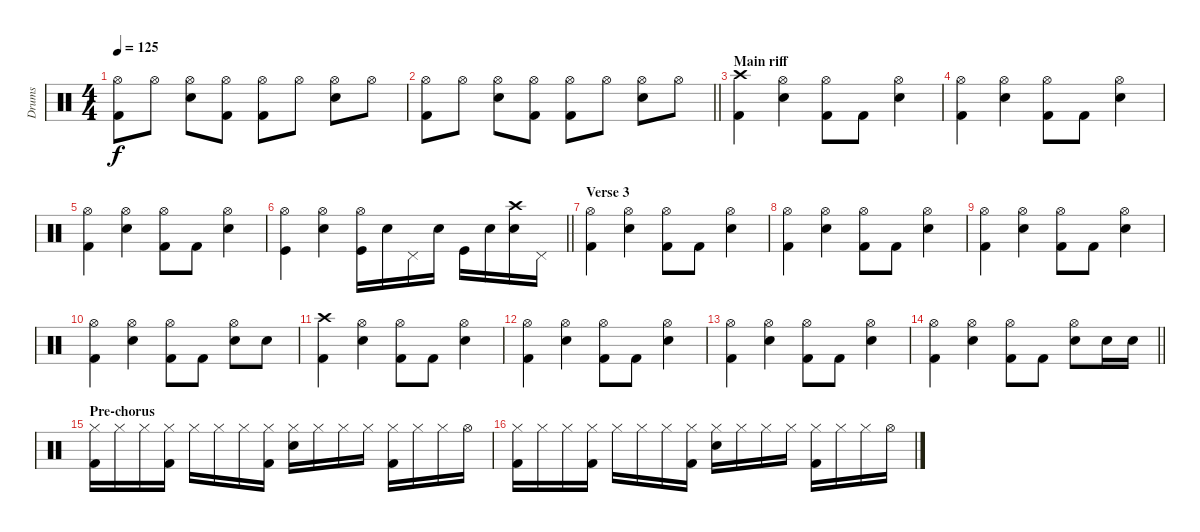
\track ("Drums" "Drums") {instrument percussion}
\staff {score}
\articulation defaults
\ts (4 4)
\tempo 125
\clef neutral
\ks c
("Hi-Hat (open)" "Kick (hit) 2").8{dy f} "Hi-Hat (open)".8 ("Hi-Hat (open)" "Electric Snare (hit)").8 ("Hi-Hat (open)" "Kick (hit) 2").8 ("Hi-Hat (open)" "Kick (hit) 2").8 "Hi-Hat (open)".8 ("Hi-Hat (open)" "Electric Snare (hit)").8 "Hi-Hat (open)".8 |
\barLineRight lightlight
("Hi-Hat (open)" "Kick (hit) 2").8 "Hi-Hat (open)".8 ("Hi-Hat (open)" "Electric Snare (hit)").8 ("Hi-Hat (open)" "Kick (hit) 2").8 ("Hi-Hat (open)" "Kick (hit) 2").8 "Hi-Hat (open)".8 ("Hi-Hat (open)" "Electric Snare (hit)").8 "Hi-Hat (open)".8 |
\section ("" "Main riff")
("Crash high (hit)" "Kick (hit) 2").4 ("Hi-Hat (open)" "Electric Snare (hit)").4 ("Hi-Hat (open)" "Kick (hit) 2").8 "Kick (hit) 2".8 ("Hi-Hat (open)" "Electric Snare (hit)").4 |
("Hi-Hat (open)" "Kick (hit) 2").4 ("Hi-Hat (open)" "Electric Snare (hit)").4 ("Hi-Hat (open)" "Kick (hit) 2").8 "Kick (hit) 2".8 ("Hi-Hat (open)" "Electric Snare (hit)").4 |
("Hi-Hat (open)" "Kick (hit) 2").4 ("Hi-Hat (open)" "Electric Snare (hit)").4 ("Hi-Hat (open)" "Kick (hit) 2").8 "Kick (hit) 2".8 ("Hi-Hat (open)" "Electric Snare (hit)").4 |
\barLineRight lightlight
("Hi-Hat (open)" "Kick (hit)").4 ("Hi-Hat (open)" "Electric Snare (hit)").4 ("Hi-Hat (open)" "Kick (hit)").16 "Electric Snare (hit)".16 "Pedal Hi-Hat (hit)".16 "Electric Snare (hit)".16 "Kick (hit)".16 "Electric Snare (hit)".16 ("Crash high (hit)" "Electric Snare (hit)").16 "Pedal Hi-Hat (hit)".16 |
\section ("" "Verse 3")
("Hi-Hat (open)" "Kick (hit) 2").4 ("Hi-Hat (open)" "Electric Snare (hit)").4 ("Hi-Hat (open)" "Kick (hit) 2").8 "Kick (hit) 2".8 ("Hi-Hat (open)" "Electric Snare (hit)").4 |
("Hi-Hat (open)" "Kick (hit) 2").4 ("Hi-Hat (open)" "Electric Snare (hit)").4 ("Hi-Hat (open)" "Kick (hit) 2").8 "Kick (hit) 2".8 ("Hi-Hat (open)" "Electric Snare (hit)").4 |
("Hi-Hat (open)" "Kick (hit) 2").4 ("Hi-Hat (open)" "Electric Snare (hit)").4 ("Hi-Hat (open)" "Kick (hit) 2").8 "Kick (hit) 2".8 ("Hi-Hat (open)" "Electric Snare (hit)").4 |
("Hi-Hat (open)" "Kick (hit) 2").4 ("Hi-Hat (open)" "Electric Snare (hit)").4 ("Hi-Hat (open)" "Kick (hit) 2").8 "Kick (hit) 2".8 ("Hi-Hat (open)" "Electric Snare (hit)").8 "Electric Snare (hit)".8 |
("Crash high (hit)" "Kick (hit) 2").4 ("Hi-Hat (open)" "Electric Snare (hit)").4 ("Hi-Hat (open)" "Kick (hit) 2").8 "Kick (hit) 2".8 ("Hi-Hat (open)" "Electric Snare (hit)").4 |
("Hi-Hat (open)" "Kick (hit) 2").4 ("Hi-Hat (open)" "Electric Snare (hit)").4 ("Hi-Hat (open)" "Kick (hit) 2").8 "Kick (hit) 2".8 ("Hi-Hat (open)" "Electric Snare (hit)").4 |
("Hi-Hat (open)" "Kick (hit) 2").4 ("Hi-Hat (open)" "Electric Snare (hit)").4 ("Hi-Hat (open)" "Kick (hit) 2").8 "Kick (hit) 2".8 ("Hi-Hat (open)" "Electric Snare (hit)").4 |
\barLineRight lightlight
("Hi-Hat (open)" "Kick (hit) 2").4 ("Hi-Hat (open)" "Electric Snare (hit)").4 ("Hi-Hat (open)" "Kick (hit) 2").8 "Kick (hit) 2".8 ("Hi-Hat (open)" "Electric Snare (hit)").8 "Electric Snare (hit)".16 "Electric Snare (hit)".16 |
\section ("" "Pre-chorus")
("Hi-Hat (closed)" "Kick (hit) 2").16 "Hi-Hat (closed)".16 "Hi-Hat (closed)".16 ("Hi-Hat (closed)" "Kick (hit) 2").16 "Hi-Hat (closed)".16 "Hi-Hat (closed)".16 "Hi-Hat (closed)".16 ("Hi-Hat (closed)" "Kick (hit) 2").16 ("Hi-Hat (closed)" "Electric Snare (hit)").16 "Hi-Hat (closed)".16 "Hi-Hat (closed)".16 "Hi-Hat (closed)".16 ("Hi-Hat (closed)" "Kick (hit) 2").16 "Hi-Hat (closed)".16 "Hi-Hat (closed)".16 "Hi-Hat (open)".16 |
("Hi-Hat (closed)" "Kick (hit) 2").16 "Hi-Hat (closed)".16 "Hi-Hat (closed)".16 ("Hi-Hat (closed)" "Kick (hit) 2").16 "Hi-Hat (closed)".16 "Hi-Hat (closed)".16 "Hi-Hat (closed)".16 ("Hi-Hat (closed)" "Kick (hit) 2").16 ("Hi-Hat (closed)" "Electric Snare (hit)").16 "Hi-Hat (closed)".16 "Hi-Hat (closed)".16 "Hi-Hat (closed)".16 ("Hi-Hat (closed)" "Kick (hit) 2").16 "Hi-Hat (closed)".16 "Hi-Hat (closed)".16 "Hi-Hat (open)".16
